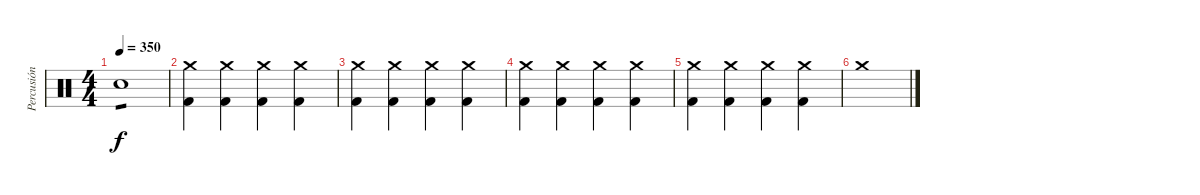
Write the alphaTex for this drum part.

\track ("Percusión" "Percusión") {instrument percussion}
\staff {score}
\articulation defaults
\ts (4 4)
\tempo 350
\clef neutral
\ks c "Electric Snare (hit)".1{tp 1 dy f}
|
("Crash medium (hit)" "Kick (hit) 2").4 ("Crash medium (hit)" "Kick (hit) 2").4 ("Crash medium (hit)" "Kick (hit) 2").4 ("Crash medium (hit)" "Kick (hit) 2").4 |
("Crash medium (hit)" "Kick (hit) 2").4 ("Crash medium (hit)" "Kick (hit) 2").4 ("Crash medium (hit)" "Kick (hit) 2").4 ("Crash medium (hit)" "Kick (hit) 2").4 |
("Crash medium (hit)" "Kick (hit) 2").4 ("Crash medium (hit)" "Kick (hit) 2").4 ("Crash medium (hit)" "Kick (hit) 2").4 ("Crash medium (hit)" "Kick (hit) 2").4 |
("Crash medium (hit)" "Kick (hit) 2").4 ("Crash medium (hit)" "Kick (hit) 2").4 ("Crash medium (hit)" "Kick (hit) 2").4 ("Crash medium (hit)" "Kick (hit) 2").4 |
"Crash medium (hit)".1
